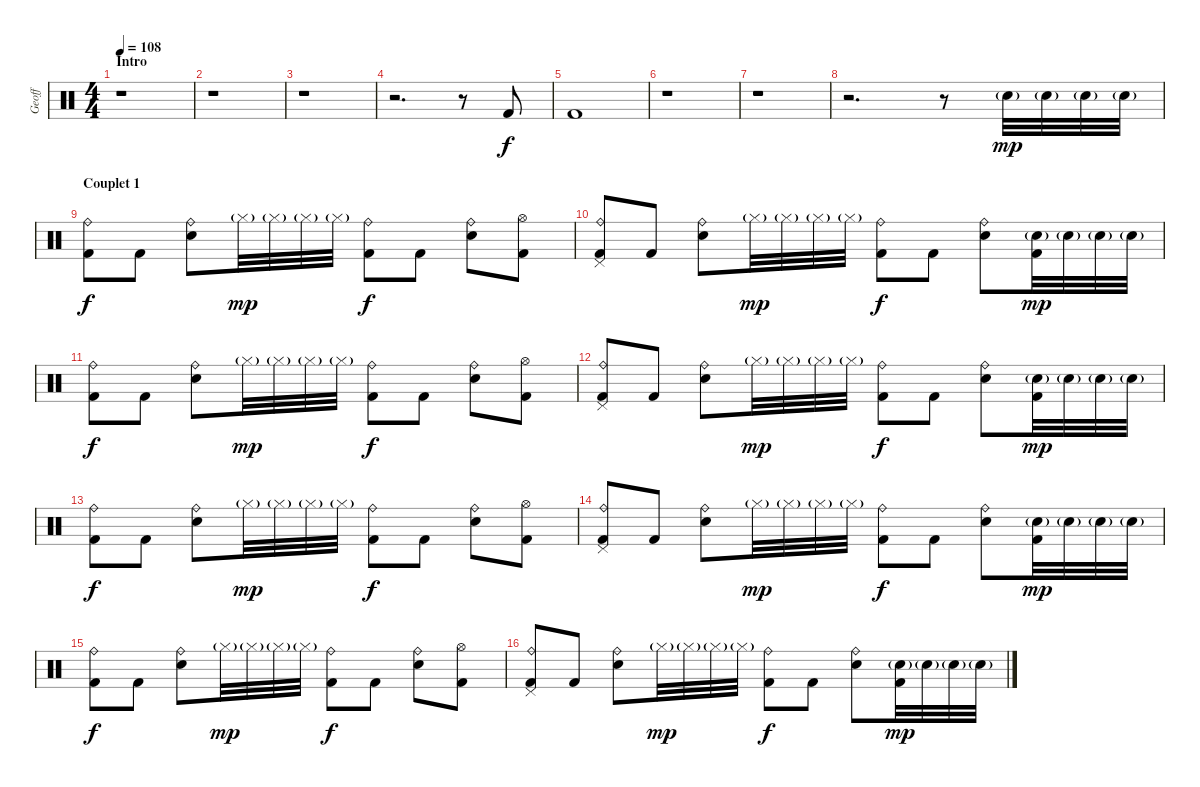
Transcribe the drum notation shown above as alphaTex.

\track ("Geoff" "Geoff") {instrument percussion}
\staff {score}
\articulation defaults
\ts (4 4)
\section ("" "Intro")
\tempo 108
\clef neutral
\ks c
r.1{dy f} |
r.1 |
r.1 |
r.2{d} r.8 "Kick (hit) 2".8 |
"Kick (hit) 2".1 |
r.1 |
r.1 |
r.2{d} r.8 "Electric Snare (hit)"{g}.32{dy mp} "Electric Snare (hit)"{g}.32 "Electric Snare (hit)"{g}.32 "Electric Snare (hit)"{g}.32 |
\section ("" "Couplet 1")
("Ride (bell)" "Kick (hit) 2").8{dy f} "Kick (hit) 2".8 ("Ride (bell)" "Electric Snare (hit)").8 "Hi-Hat (closed)"{g}.32{dy mp} "Hi-Hat (closed)"{g}.32 "Hi-Hat (closed)"{g}.32 "Hi-Hat (closed)"{g}.32 ("Ride (bell)" "Kick (hit) 2").8{dy f} "Kick (hit) 2".8 ("Ride (bell)" "Electric Snare (hit)").8 ("Hi-Hat (open)" "Kick (hit) 2").8 |
("Ride (bell)" "Pedal Hi-Hat (hit)" "Kick (hit) 2").8 "Kick (hit) 2".8 ("Ride (bell)" "Electric Snare (hit)").8 "Hi-Hat (closed)"{g}.32{dy mp} "Hi-Hat (closed)"{g}.32 "Hi-Hat (closed)"{g}.32 "Hi-Hat (closed)"{g}.32 ("Ride (bell)" "Kick (hit) 2").8{dy f} "Kick (hit) 2".8 ("Ride (bell)" "Electric Snare (hit)").8 ("Electric Snare (hit)"{g} "Kick (hit) 2").32{dy mp} "Electric Snare (hit)"{g}.32 "Electric Snare (hit)"{g}.32 "Electric Snare (hit)"{g}.32 |
("Ride (bell)" "Kick (hit) 2").8{dy f} "Kick (hit) 2".8 ("Ride (bell)" "Electric Snare (hit)").8 "Hi-Hat (closed)"{g}.32{dy mp} "Hi-Hat (closed)"{g}.32 "Hi-Hat (closed)"{g}.32 "Hi-Hat (closed)"{g}.32 ("Ride (bell)" "Kick (hit) 2").8{dy f} "Kick (hit) 2".8 ("Ride (bell)" "Electric Snare (hit)").8 ("Hi-Hat (open)" "Kick (hit) 2").8 |
("Ride (bell)" "Pedal Hi-Hat (hit)" "Kick (hit) 2").8 "Kick (hit) 2".8 ("Ride (bell)" "Electric Snare (hit)").8 "Hi-Hat (closed)"{g}.32{dy mp} "Hi-Hat (closed)"{g}.32 "Hi-Hat (closed)"{g}.32 "Hi-Hat (closed)"{g}.32 ("Ride (bell)" "Kick (hit) 2").8{dy f} "Kick (hit) 2".8 ("Ride (bell)" "Electric Snare (hit)").8 ("Electric Snare (hit)"{g} "Kick (hit) 2").32{dy mp} "Electric Snare (hit)"{g}.32 "Electric Snare (hit)"{g}.32 "Electric Snare (hit)"{g}.32 |
("Ride (bell)" "Kick (hit) 2").8{dy f} "Kick (hit) 2".8 ("Ride (bell)" "Electric Snare (hit)").8 "Hi-Hat (closed)"{g}.32{dy mp} "Hi-Hat (closed)"{g}.32 "Hi-Hat (closed)"{g}.32 "Hi-Hat (closed)"{g}.32 ("Ride (bell)" "Kick (hit) 2").8{dy f} "Kick (hit) 2".8 ("Ride (bell)" "Electric Snare (hit)").8 ("Hi-Hat (open)" "Kick (hit) 2").8 |
("Ride (bell)" "Pedal Hi-Hat (hit)" "Kick (hit) 2").8 "Kick (hit) 2".8 ("Ride (bell)" "Electric Snare (hit)").8 "Hi-Hat (closed)"{g}.32{dy mp} "Hi-Hat (closed)"{g}.32 "Hi-Hat (closed)"{g}.32 "Hi-Hat (closed)"{g}.32 ("Ride (bell)" "Kick (hit) 2").8{dy f} "Kick (hit) 2".8 ("Ride (bell)" "Electric Snare (hit)").8 ("Electric Snare (hit)"{g} "Kick (hit) 2").32{dy mp} "Electric Snare (hit)"{g}.32 "Electric Snare (hit)"{g}.32 "Electric Snare (hit)"{g}.32 |
("Ride (bell)" "Kick (hit) 2").8{dy f} "Kick (hit) 2".8 ("Ride (bell)" "Electric Snare (hit)").8 "Hi-Hat (closed)"{g}.32{dy mp} "Hi-Hat (closed)"{g}.32 "Hi-Hat (closed)"{g}.32 "Hi-Hat (closed)"{g}.32 ("Ride (bell)" "Kick (hit) 2").8{dy f} "Kick (hit) 2".8 ("Ride (bell)" "Electric Snare (hit)").8 ("Hi-Hat (open)" "Kick (hit) 2").8 |
("Ride (bell)" "Pedal Hi-Hat (hit)" "Kick (hit) 2").8 "Kick (hit) 2".8 ("Ride (bell)" "Electric Snare (hit)").8 "Hi-Hat (closed)"{g}.32{dy mp} "Hi-Hat (closed)"{g}.32 "Hi-Hat (closed)"{g}.32 "Hi-Hat (closed)"{g}.32 ("Ride (bell)" "Kick (hit) 2").8{dy f} "Kick (hit) 2".8 ("Ride (bell)" "Electric Snare (hit)").8 ("Electric Snare (hit)"{g} "Kick (hit) 2").32{dy mp} "Electric Snare (hit)"{g}.32 "Electric Snare (hit)"{g}.32 "Electric Snare (hit)"{g}.32
